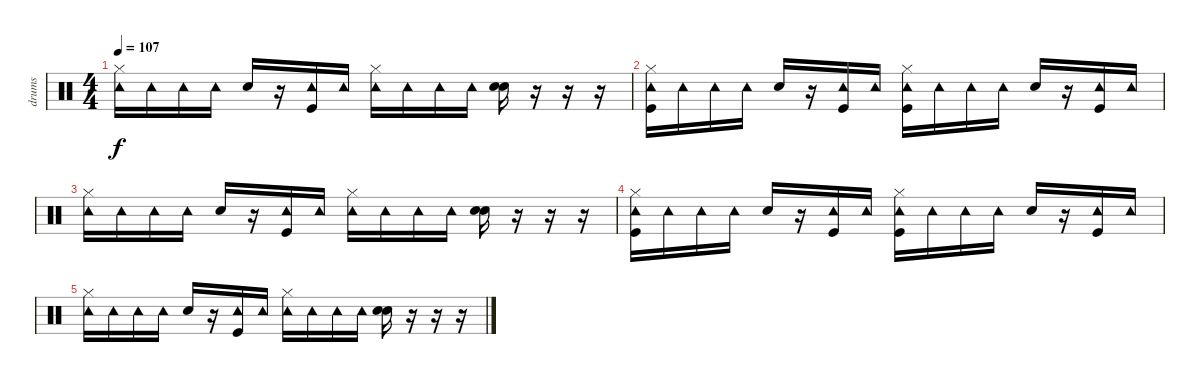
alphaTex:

\track ("drums" "drums") {instrument percussion}
\staff {score}
\articulation defaults
\ts (4 4)
\tempo 107
\clef neutral
\ks c
("Hi-Hat (closed)" "Tambourine (hit)").16{dy f} "Tambourine (hit)".16 "Tambourine (hit)".16 "Tambourine (hit)".16 "Snare (hit) 2".16 r.16 ("Tambourine (hit)" "Kick (hit)").16 "Tambourine (hit)".16 ("Hi-Hat (closed)" "Tambourine (hit)").16 "Tambourine (hit)".16 "Tambourine (hit)".16 "Tambourine (hit)".16 ("Snare (hit) 2" "Electric Snare (hit)").16 r.16 r.16 r.16 |
("Hi-Hat (closed)" "Tambourine (hit)" "Kick (hit)").16 "Tambourine (hit)".16 "Tambourine (hit)".16 "Tambourine (hit)".16 "Snare (hit) 2".16 r.16 ("Tambourine (hit)" "Kick (hit)").16 "Tambourine (hit)".16 ("Hi-Hat (closed)" "Tambourine (hit)" "Kick (hit)").16 "Tambourine (hit)".16 "Tambourine (hit)".16 "Tambourine (hit)".16 "Snare (hit) 2".16 r.16 ("Tambourine (hit)" "Kick (hit)").16 "Tambourine (hit)".16 |
("Hi-Hat (closed)" "Tambourine (hit)").16 "Tambourine (hit)".16 "Tambourine (hit)".16 "Tambourine (hit)".16 "Snare (hit) 2".16 r.16 ("Tambourine (hit)" "Kick (hit)").16 "Tambourine (hit)".16 ("Hi-Hat (closed)" "Tambourine (hit)").16 "Tambourine (hit)".16 "Tambourine (hit)".16 "Tambourine (hit)".16 ("Snare (hit) 2" "Electric Snare (hit)").16 r.16 r.16 r.16 |
("Hi-Hat (closed)" "Tambourine (hit)" "Kick (hit)").16 "Tambourine (hit)".16 "Tambourine (hit)".16 "Tambourine (hit)".16 "Snare (hit) 2".16 r.16 ("Tambourine (hit)" "Kick (hit)").16 "Tambourine (hit)".16 ("Hi-Hat (closed)" "Tambourine (hit)" "Kick (hit)").16 "Tambourine (hit)".16 "Tambourine (hit)".16 "Tambourine (hit)".16 "Snare (hit) 2".16 r.16 ("Tambourine (hit)" "Kick (hit)").16 "Tambourine (hit)".16 |
("Hi-Hat (closed)" "Tambourine (hit)").16 "Tambourine (hit)".16 "Tambourine (hit)".16 "Tambourine (hit)".16 "Snare (hit) 2".16 r.16 ("Tambourine (hit)" "Kick (hit)").16 "Tambourine (hit)".16 ("Hi-Hat (closed)" "Tambourine (hit)").16 "Tambourine (hit)".16 "Tambourine (hit)".16 "Tambourine (hit)".16 ("Snare (hit) 2" "Electric Snare (hit)").16 r.16 r.16 r.16
